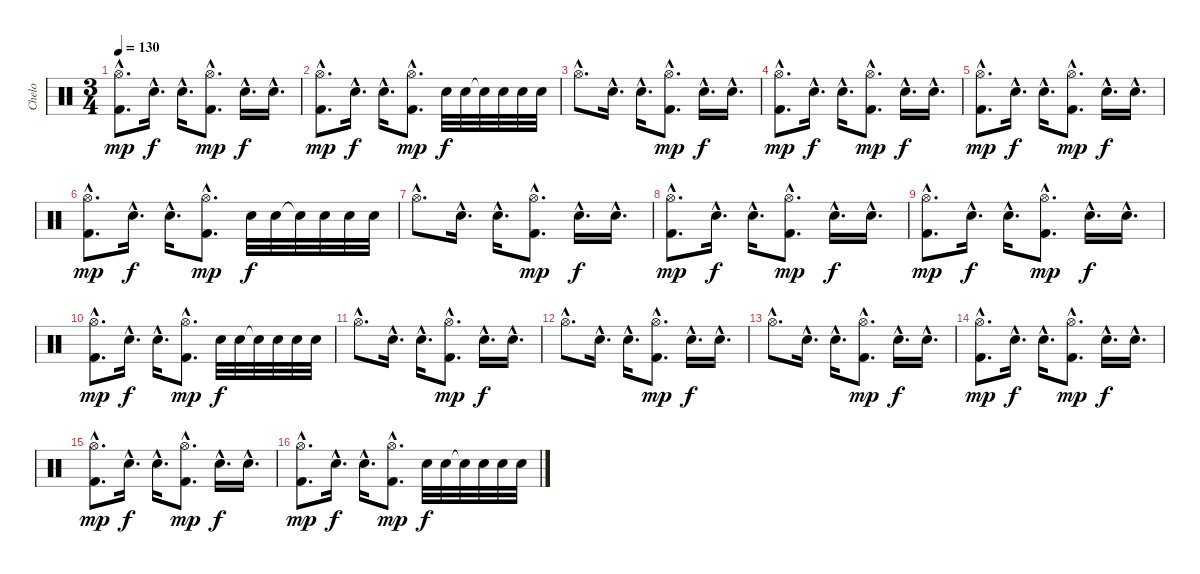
\track ("Chelo" "Chelo") {instrument percussion}
\staff {score}
\articulation defaults
\ts (3 4)
\tempo 130
\clef neutral
\ks c
("Hi-Hat (open)"{hac} "Kick (hit) 2"{hac}).8{d dy mp} "Electric Snare (hit)"{hac}.16{d dy f} "Electric Snare (hit)"{hac}.16{d} ("Hi-Hat (open)"{hac} "Kick (hit) 2"{hac}).8{d dy mp} "Electric Snare (hit)"{hac}.16{d dy f} "Electric Snare (hit)"{hac}.16{d} |
("Hi-Hat (open)"{hac} "Kick (hit) 2"{hac}).8{d dy mp} "Electric Snare (hit)"{hac}.16{d dy f} "Electric Snare (hit)"{hac}.16{d} ("Hi-Hat (open)"{hac} "Kick (hit) 2"{hac}).8{d dy mp} "Electric Snare (hit)".32{dy f} "Electric Snare (hit)".32 "Electric Snare (hit)"{t}.32 "Electric Snare (hit)".32 "Electric Snare (hit)".32 "Electric Snare (hit)".32 |
"Hi-Hat (open)"{hac}.8{d} "Electric Snare (hit)"{hac}.16{d} "Electric Snare (hit)"{hac}.16{d} ("Hi-Hat (open)"{hac} "Kick (hit) 2"{hac}).8{d dy mp} "Electric Snare (hit)"{hac}.16{d dy f} "Electric Snare (hit)"{hac}.16{d} |
("Hi-Hat (open)"{hac} "Kick (hit) 2"{hac}).8{d dy mp} "Electric Snare (hit)"{hac}.16{d dy f} "Electric Snare (hit)"{hac}.16{d} ("Hi-Hat (open)"{hac} "Kick (hit) 2"{hac}).8{d dy mp} "Electric Snare (hit)"{hac}.16{d dy f} "Electric Snare (hit)"{hac}.16{d} |
("Hi-Hat (open)"{hac} "Kick (hit) 2"{hac}).8{d dy mp} "Electric Snare (hit)"{hac}.16{d dy f} "Electric Snare (hit)"{hac}.16{d} ("Hi-Hat (open)"{hac} "Kick (hit) 2"{hac}).8{d dy mp} "Electric Snare (hit)"{hac}.16{d dy f} "Electric Snare (hit)"{hac}.16{d} |
("Hi-Hat (open)"{hac} "Kick (hit) 2"{hac}).8{d dy mp} "Electric Snare (hit)"{hac}.16{d dy f} "Electric Snare (hit)"{hac}.16{d} ("Hi-Hat (open)"{hac} "Kick (hit) 2"{hac}).8{d dy mp} "Electric Snare (hit)".32{dy f} "Electric Snare (hit)".32 "Electric Snare (hit)"{t}.32 "Electric Snare (hit)".32 "Electric Snare (hit)".32 "Electric Snare (hit)".32 |
"Hi-Hat (open)"{hac}.8{d} "Electric Snare (hit)"{hac}.16{d} "Electric Snare (hit)"{hac}.16{d} ("Hi-Hat (open)"{hac} "Kick (hit) 2"{hac}).8{d dy mp} "Electric Snare (hit)"{hac}.16{d dy f} "Electric Snare (hit)"{hac}.16{d} |
("Hi-Hat (open)"{hac} "Kick (hit) 2"{hac}).8{d dy mp} "Electric Snare (hit)"{hac}.16{d dy f} "Electric Snare (hit)"{hac}.16{d} ("Hi-Hat (open)"{hac} "Kick (hit) 2"{hac}).8{d dy mp} "Electric Snare (hit)"{hac}.16{d dy f} "Electric Snare (hit)"{hac}.16{d} |
("Hi-Hat (open)"{hac} "Kick (hit) 2"{hac}).8{d dy mp} "Electric Snare (hit)"{hac}.16{d dy f} "Electric Snare (hit)"{hac}.16{d} ("Hi-Hat (open)"{hac} "Kick (hit) 2"{hac}).8{d dy mp} "Electric Snare (hit)"{hac}.16{d dy f} "Electric Snare (hit)"{hac}.16{d} |
("Hi-Hat (open)"{hac} "Kick (hit) 2"{hac}).8{d dy mp} "Electric Snare (hit)"{hac}.16{d dy f} "Electric Snare (hit)"{hac}.16{d} ("Hi-Hat (open)"{hac} "Kick (hit) 2"{hac}).8{d dy mp} "Electric Snare (hit)".32{dy f} "Electric Snare (hit)".32 "Electric Snare (hit)"{t}.32 "Electric Snare (hit)".32 "Electric Snare (hit)".32 "Electric Snare (hit)".32 |
"Hi-Hat (open)"{hac}.8{d} "Electric Snare (hit)"{hac}.16{d} "Electric Snare (hit)"{hac}.16{d} ("Hi-Hat (open)"{hac} "Kick (hit) 2"{hac}).8{d dy mp} "Electric Snare (hit)"{hac}.16{d dy f} "Electric Snare (hit)"{hac}.16{d} |
"Hi-Hat (open)"{hac}.8{d} "Electric Snare (hit)"{hac}.16{d} "Electric Snare (hit)"{hac}.16{d} ("Hi-Hat (open)"{hac} "Kick (hit) 2"{hac}).8{d dy mp} "Electric Snare (hit)"{hac}.16{d dy f} "Electric Snare (hit)"{hac}.16{d} |
"Hi-Hat (open)"{hac}.8{d} "Electric Snare (hit)"{hac}.16{d} "Electric Snare (hit)"{hac}.16{d} ("Hi-Hat (open)"{hac} "Kick (hit) 2"{hac}).8{d dy mp} "Electric Snare (hit)"{hac}.16{d dy f} "Electric Snare (hit)"{hac}.16{d} |
("Hi-Hat (open)"{hac} "Kick (hit) 2"{hac}).8{d dy mp} "Electric Snare (hit)"{hac}.16{d dy f} "Electric Snare (hit)"{hac}.16{d} ("Hi-Hat (open)"{hac} "Kick (hit) 2"{hac}).8{d dy mp} "Electric Snare (hit)"{hac}.16{d dy f} "Electric Snare (hit)"{hac}.16{d} |
("Hi-Hat (open)"{hac} "Kick (hit) 2"{hac}).8{d dy mp} "Electric Snare (hit)"{hac}.16{d dy f} "Electric Snare (hit)"{hac}.16{d} ("Hi-Hat (open)"{hac} "Kick (hit) 2"{hac}).8{d dy mp} "Electric Snare (hit)"{hac}.16{d dy f} "Electric Snare (hit)"{hac}.16{d} |
("Hi-Hat (open)"{hac} "Kick (hit) 2"{hac}).8{d dy mp} "Electric Snare (hit)"{hac}.16{d dy f} "Electric Snare (hit)"{hac}.16{d} ("Hi-Hat (open)"{hac} "Kick (hit) 2"{hac}).8{d dy mp} "Electric Snare (hit)".32{dy f} "Electric Snare (hit)".32 "Electric Snare (hit)"{t}.32 "Electric Snare (hit)".32 "Electric Snare (hit)".32 "Electric Snare (hit)".32
